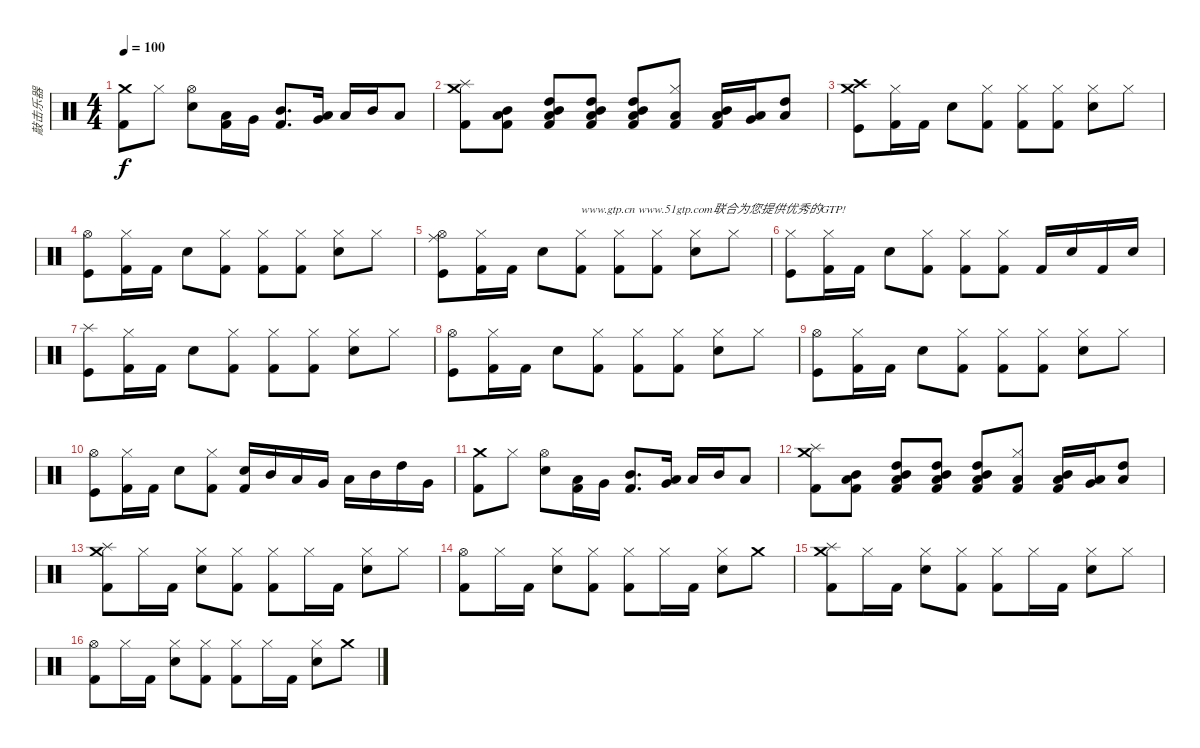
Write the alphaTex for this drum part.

\track ("敲击乐器" "敲击乐器") {instrument percussion}
\staff {score}
\articulation defaults
\ts (4 4)
\tempo 100
\clef neutral
\ks c
("Crash medium (hit)" "Kick (hit) 2").8{dy f} "Hi-Hat (closed)".8 ("Hi-Hat (open)" "Electric Snare (hit)").8 ("Low Tom (hit)" "Kick (hit) 2").16 "Very Low Tom (hit)".16 ("Mid Tom (hit)" "Kick (hit) 2").8{d} ("Very Low Tom (hit)" "Low Tom (hit)").16 "Low Tom (hit)".16 "Mid Tom (hit)".16 "Low Floor Tom (hit)".8 |
("Splash (hit)" "Crash medium (hit)" "Kick (hit) 2").8 ("Mid Tom (hit)" "Low Tom (hit)" "Kick (hit) 2").8 ("Mid Tom (hit)" "High Tom (hit)" "Low Tom (hit)" "Kick (hit) 2").8 ("Mid Tom (hit)" "High Tom (hit)" "Low Tom (hit)" "Kick (hit) 2").8 ("Mid Tom (hit)" "High Tom (hit)" "Low Tom (hit)" "Kick (hit) 2").8 ("Hi-Hat (closed)" "Low Tom (hit)" "Kick (hit) 2").8 ("Mid Tom (hit)" "Low Tom (hit)" "Kick (hit) 2").16 ("Low Tom (hit)" "Very Low Tom (hit)").16 ("High Tom (hit)" "Low Floor Tom (hit)").8 |
("Crash medium (hit)" "Crash high (hit)" "Kick (hit)").8 ("Hi-Hat (closed)" "Kick (hit) 2").16 "Kick (hit) 2".16 "Electric Snare (hit)".8 ("Hi-Hat (closed)" "Kick (hit) 2").8 ("Hi-Hat (closed)" "Kick (hit) 2").8 ("Hi-Hat (closed)" "Kick (hit) 2").8 ("Hi-Hat (closed)" "Electric Snare (hit)").8 "Hi-Hat (closed)".8 |
("Hi-Hat (open)" "Kick (hit)").8 ("Hi-Hat (closed)" "Kick (hit) 2").16 "Kick (hit) 2".16 "Electric Snare (hit)".8 ("Hi-Hat (closed)" "Kick (hit) 2").8 ("Hi-Hat (closed)" "Kick (hit) 2").8 ("Hi-Hat (closed)" "Kick (hit) 2").8 ("Hi-Hat (closed)" "Electric Snare (hit)").8 "Hi-Hat (closed)".8 |
("Ride (middle)" "Hi-Hat (open)" "Kick (hit)").8 ("Hi-Hat (closed)" "Kick (hit) 2").16 "Kick (hit) 2".16 "Electric Snare (hit)".8 ("Hi-Hat (closed)" "Kick (hit) 2").8{txt "www.gtp.cn www.51gtp.com联合为您提供优秀的GTP!"} ("Hi-Hat (closed)" "Kick (hit) 2").8 ("Hi-Hat (closed)" "Kick (hit) 2").8 ("Hi-Hat (closed)" "Electric Snare (hit)").8 "Hi-Hat (closed)".8 |
("Hi-Hat (closed)" "Kick (hit)").8 ("Hi-Hat (closed)" "Kick (hit) 2").16 "Kick (hit) 2".16 "Electric Snare (hit)".8 ("Hi-Hat (closed)" "Kick (hit) 2").8 ("Hi-Hat (closed)" "Kick (hit) 2").8 ("Hi-Hat (closed)" "Kick (hit) 2").8 "Kick (hit) 2".16 "Electric Snare (hit)".16 "Kick (hit) 2".16 "Electric Snare (hit)".16 |
("Splash (hit)" "Kick (hit)").8 ("Hi-Hat (closed)" "Kick (hit) 2").16 "Kick (hit) 2".16 "Electric Snare (hit)".8 ("Hi-Hat (closed)" "Kick (hit) 2").8 ("Hi-Hat (closed)" "Kick (hit) 2").8 ("Hi-Hat (closed)" "Kick (hit) 2").8 ("Hi-Hat (closed)" "Electric Snare (hit)").8 "Hi-Hat (closed)".8 |
("Hi-Hat (open)" "Kick (hit)").8 ("Hi-Hat (closed)" "Kick (hit) 2").16 "Kick (hit) 2".16 "Electric Snare (hit)".8 ("Hi-Hat (closed)" "Kick (hit) 2").8 ("Hi-Hat (closed)" "Kick (hit) 2").8 ("Hi-Hat (closed)" "Kick (hit) 2").8 ("Hi-Hat (closed)" "Electric Snare (hit)").8 "Hi-Hat (closed)".8 |
("Hi-Hat (open)" "Kick (hit)").8 ("Hi-Hat (closed)" "Kick (hit) 2").16 "Kick (hit) 2".16 "Electric Snare (hit)".8 ("Hi-Hat (closed)" "Kick (hit) 2").8 ("Hi-Hat (closed)" "Kick (hit) 2").8 ("Hi-Hat (closed)" "Kick (hit) 2").8 ("Hi-Hat (closed)" "Electric Snare (hit)").8 "Hi-Hat (closed)".8 |
("Hi-Hat (open)" "Kick (hit)").8 ("Hi-Hat (closed)" "Kick (hit) 2").16 "Kick (hit) 2".16 "Electric Snare (hit)".8 ("Hi-Hat (closed)" "Kick (hit) 2").8 ("Electric Snare (hit)" "Kick (hit) 2").16 "Mid Tom (hit)".16 "Low Tom (hit)".16 "Very Low Tom (hit)".16 "Low Tom (hit)".16 "Mid Tom (hit)".16 "High Tom (hit)".16 "Very Low Tom (hit)".16 |
("Crash medium (hit)" "Kick (hit) 2").8 "Hi-Hat (closed)".8 ("Hi-Hat (open)" "Electric Snare (hit)").8 ("Low Tom (hit)" "Kick (hit) 2").16 "Very Low Tom (hit)".16 ("Mid Tom (hit)" "Kick (hit) 2").8{d} ("Very Low Tom (hit)" "Low Tom (hit)").16 "Low Tom (hit)".16 "Mid Tom (hit)".16 "Low Floor Tom (hit)".8 |
("Splash (hit)" "Crash medium (hit)" "Kick (hit) 2").8 ("Mid Tom (hit)" "Low Tom (hit)" "Kick (hit) 2").8 ("Mid Tom (hit)" "High Tom (hit)" "Low Tom (hit)" "Kick (hit) 2").8 ("Mid Tom (hit)" "High Tom (hit)" "Low Tom (hit)" "Kick (hit) 2").8 ("Mid Tom (hit)" "High Tom (hit)" "Low Tom (hit)" "Kick (hit) 2").8 ("Hi-Hat (closed)" "Low Tom (hit)" "Kick (hit) 2").8 ("Mid Tom (hit)" "Low Tom (hit)" "Kick (hit) 2").16 ("Low Tom (hit)" "Very Low Tom (hit)").16 ("High Tom (hit)" "Low Floor Tom (hit)").8 |
("Splash (hit)" "Crash medium (hit)" "Kick (hit) 2").8 "Hi-Hat (closed)".16 "Kick (hit) 2".16 ("Hi-Hat (closed)" "Electric Snare (hit)").8 ("Hi-Hat (closed)" "Kick (hit) 2").8 ("Hi-Hat (closed)" "Kick (hit) 2").8 "Hi-Hat (closed)".16 "Kick (hit) 2".16 ("Hi-Hat (closed)" "Electric Snare (hit)").8 "Hi-Hat (closed)".8 |
("Hi-Hat (open)" "Kick (hit) 2").8 "Hi-Hat (closed)".16 "Kick (hit) 2".16 ("Hi-Hat (closed)" "Electric Snare (hit)").8 ("Hi-Hat (closed)" "Kick (hit) 2").8 ("Hi-Hat (closed)" "Kick (hit) 2").8 "Hi-Hat (closed)".16 "Kick (hit) 2".16 ("Hi-Hat (closed)" "Electric Snare (hit)").8 "Crash medium (hit)".8 |
("Splash (hit)" "Crash medium (hit)" "Kick (hit) 2").8 "Hi-Hat (closed)".16 "Kick (hit) 2".16 ("Hi-Hat (closed)" "Electric Snare (hit)").8 ("Hi-Hat (closed)" "Kick (hit) 2").8 ("Hi-Hat (closed)" "Kick (hit) 2").8 "Hi-Hat (closed)".16 "Kick (hit) 2".16 ("Hi-Hat (closed)" "Electric Snare (hit)").8 "Hi-Hat (closed)".8 |
("Hi-Hat (open)" "Kick (hit) 2").8 "Hi-Hat (closed)".16 "Kick (hit) 2".16 ("Hi-Hat (closed)" "Electric Snare (hit)").8 ("Hi-Hat (closed)" "Kick (hit) 2").8 ("Hi-Hat (closed)" "Kick (hit) 2").8 "Hi-Hat (closed)".16 "Kick (hit) 2".16 ("Hi-Hat (closed)" "Electric Snare (hit)").8 "Crash medium (hit)".8
